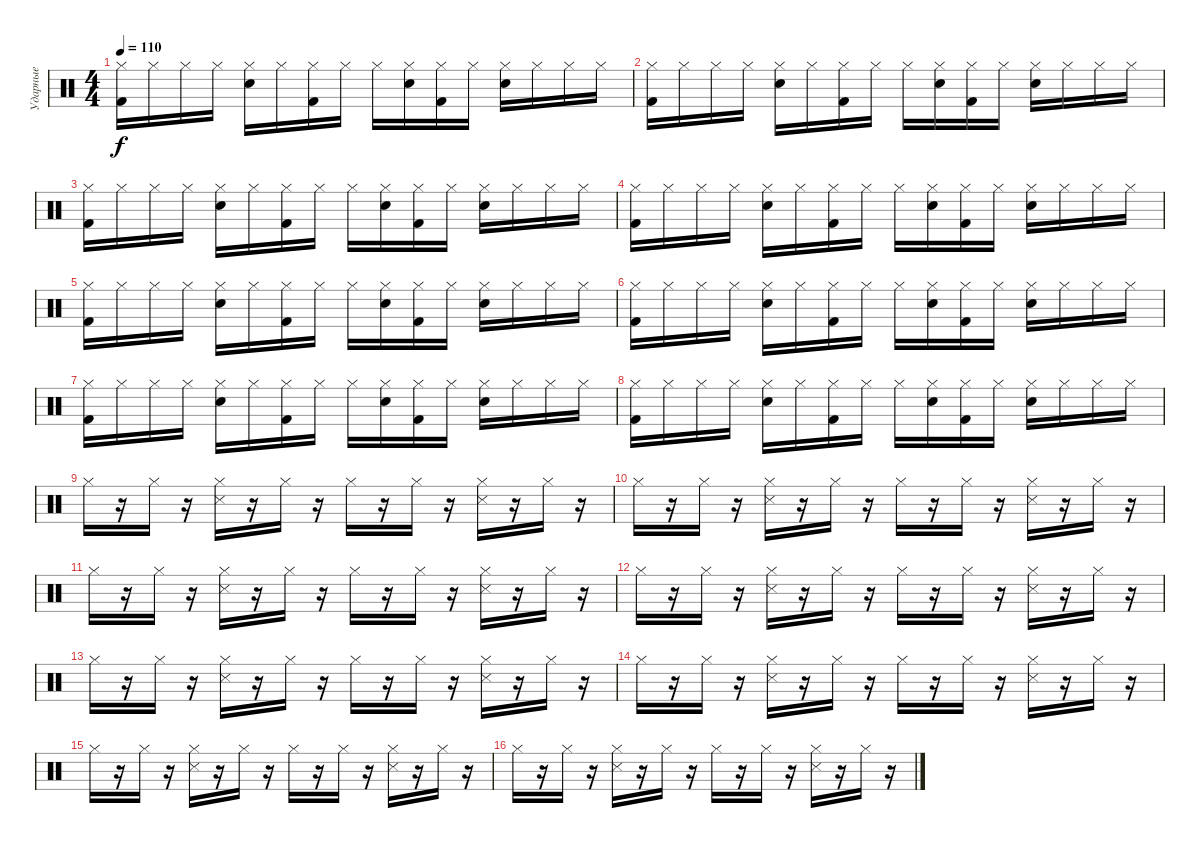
\track ("Ударные" "Ударные") {instrument percussion}
\staff {score}
\articulation defaults
\ts (4 4)
\tempo 110
\clef neutral
\ks c
("Hi-Hat (closed)" "Kick (hit) 2").16{dy f} "Hi-Hat (closed)".16 "Hi-Hat (closed)".16 "Hi-Hat (closed)".16 ("Hi-Hat (closed)" "Snare (hit) 2").16 "Hi-Hat (closed)".16 ("Hi-Hat (closed)" "Kick (hit) 2").16 "Hi-Hat (closed)".16 "Hi-Hat (closed)".16 ("Hi-Hat (closed)" "Snare (hit) 2").16 ("Hi-Hat (closed)" "Kick (hit) 2").16 "Hi-Hat (closed)".16 ("Hi-Hat (closed)" "Snare (hit) 2").16 "Hi-Hat (closed)".16 "Hi-Hat (closed)".16 "Hi-Hat (closed)".16 |
("Hi-Hat (closed)" "Kick (hit) 2").16 "Hi-Hat (closed)".16 "Hi-Hat (closed)".16 "Hi-Hat (closed)".16 ("Hi-Hat (closed)" "Snare (hit) 2").16 "Hi-Hat (closed)".16 ("Hi-Hat (closed)" "Kick (hit) 2").16 "Hi-Hat (closed)".16 "Hi-Hat (closed)".16 ("Hi-Hat (closed)" "Snare (hit) 2").16 ("Hi-Hat (closed)" "Kick (hit) 2").16 "Hi-Hat (closed)".16 ("Hi-Hat (closed)" "Snare (hit) 2").16 "Hi-Hat (closed)".16 "Hi-Hat (closed)".16 "Hi-Hat (closed)".16 |
("Hi-Hat (closed)" "Kick (hit) 2").16 "Hi-Hat (closed)".16 "Hi-Hat (closed)".16 "Hi-Hat (closed)".16 ("Hi-Hat (closed)" "Snare (hit) 2").16 "Hi-Hat (closed)".16 ("Hi-Hat (closed)" "Kick (hit) 2").16 "Hi-Hat (closed)".16 "Hi-Hat (closed)".16 ("Hi-Hat (closed)" "Snare (hit) 2").16 ("Hi-Hat (closed)" "Kick (hit) 2").16 "Hi-Hat (closed)".16 ("Hi-Hat (closed)" "Snare (hit) 2").16 "Hi-Hat (closed)".16 "Hi-Hat (closed)".16 "Hi-Hat (closed)".16 |
("Hi-Hat (closed)" "Kick (hit) 2").16 "Hi-Hat (closed)".16 "Hi-Hat (closed)".16 "Hi-Hat (closed)".16 ("Hi-Hat (closed)" "Snare (hit) 2").16 "Hi-Hat (closed)".16 ("Hi-Hat (closed)" "Kick (hit) 2").16 "Hi-Hat (closed)".16 "Hi-Hat (closed)".16 ("Hi-Hat (closed)" "Snare (hit) 2").16 ("Hi-Hat (closed)" "Kick (hit) 2").16 "Hi-Hat (closed)".16 ("Hi-Hat (closed)" "Snare (hit) 2").16 "Hi-Hat (closed)".16 "Hi-Hat (closed)".16 "Hi-Hat (closed)".16 |
("Hi-Hat (closed)" "Kick (hit) 2").16 "Hi-Hat (closed)".16 "Hi-Hat (closed)".16 "Hi-Hat (closed)".16 ("Hi-Hat (closed)" "Snare (hit) 2").16 "Hi-Hat (closed)".16 ("Hi-Hat (closed)" "Kick (hit) 2").16 "Hi-Hat (closed)".16 "Hi-Hat (closed)".16 ("Hi-Hat (closed)" "Snare (hit) 2").16 ("Hi-Hat (closed)" "Kick (hit) 2").16 "Hi-Hat (closed)".16 ("Hi-Hat (closed)" "Snare (hit) 2").16 "Hi-Hat (closed)".16 "Hi-Hat (closed)".16 "Hi-Hat (closed)".16 |
("Hi-Hat (closed)" "Kick (hit) 2").16 "Hi-Hat (closed)".16 "Hi-Hat (closed)".16 "Hi-Hat (closed)".16 ("Hi-Hat (closed)" "Snare (hit) 2").16 "Hi-Hat (closed)".16 ("Hi-Hat (closed)" "Kick (hit) 2").16 "Hi-Hat (closed)".16 "Hi-Hat (closed)".16 ("Hi-Hat (closed)" "Snare (hit) 2").16 ("Hi-Hat (closed)" "Kick (hit) 2").16 "Hi-Hat (closed)".16 ("Hi-Hat (closed)" "Snare (hit) 2").16 "Hi-Hat (closed)".16 "Hi-Hat (closed)".16 "Hi-Hat (closed)".16 |
("Hi-Hat (closed)" "Kick (hit) 2").16 "Hi-Hat (closed)".16 "Hi-Hat (closed)".16 "Hi-Hat (closed)".16 ("Hi-Hat (closed)" "Snare (hit) 2").16 "Hi-Hat (closed)".16 ("Hi-Hat (closed)" "Kick (hit) 2").16 "Hi-Hat (closed)".16 "Hi-Hat (closed)".16 ("Hi-Hat (closed)" "Snare (hit) 2").16 ("Hi-Hat (closed)" "Kick (hit) 2").16 "Hi-Hat (closed)".16 ("Hi-Hat (closed)" "Snare (hit) 2").16 "Hi-Hat (closed)".16 "Hi-Hat (closed)".16 "Hi-Hat (closed)".16 |
("Hi-Hat (closed)" "Kick (hit) 2").16 "Hi-Hat (closed)".16 "Hi-Hat (closed)".16 "Hi-Hat (closed)".16 ("Hi-Hat (closed)" "Snare (hit) 2").16 "Hi-Hat (closed)".16 ("Hi-Hat (closed)" "Kick (hit) 2").16 "Hi-Hat (closed)".16 "Hi-Hat (closed)".16 ("Hi-Hat (closed)" "Snare (hit) 2").16 ("Hi-Hat (closed)" "Kick (hit) 2").16 "Hi-Hat (closed)".16 ("Hi-Hat (closed)" "Snare (hit) 2").16 "Hi-Hat (closed)".16 "Hi-Hat (closed)".16 "Hi-Hat (closed)".16 |
"Hi-Hat (closed)".16 r.16 "Hi-Hat (closed)".16 r.16 ("Hi-Hat (closed)" "Snare (side stick) 3").16 r.16 "Hi-Hat (closed)".16 r.16 "Hi-Hat (closed)".16 r.16 "Hi-Hat (closed)".16 r.16 ("Hi-Hat (closed)" "Snare (side stick) 3").16 r.16 "Hi-Hat (closed)".16 r.16 |
"Hi-Hat (closed)".16 r.16 "Hi-Hat (closed)".16 r.16 ("Hi-Hat (closed)" "Snare (side stick) 3").16 r.16 "Hi-Hat (closed)".16 r.16 "Hi-Hat (closed)".16 r.16 "Hi-Hat (closed)".16 r.16 ("Hi-Hat (closed)" "Snare (side stick) 3").16 r.16 "Hi-Hat (closed)".16 r.16 |
"Hi-Hat (closed)".16 r.16 "Hi-Hat (closed)".16 r.16 ("Hi-Hat (closed)" "Snare (side stick) 3").16 r.16 "Hi-Hat (closed)".16 r.16 "Hi-Hat (closed)".16 r.16 "Hi-Hat (closed)".16 r.16 ("Hi-Hat (closed)" "Snare (side stick) 3").16 r.16 "Hi-Hat (closed)".16 r.16 |
"Hi-Hat (closed)".16 r.16 "Hi-Hat (closed)".16 r.16 ("Hi-Hat (closed)" "Snare (side stick) 3").16 r.16 "Hi-Hat (closed)".16 r.16 "Hi-Hat (closed)".16 r.16 "Hi-Hat (closed)".16 r.16 ("Hi-Hat (closed)" "Snare (side stick) 3").16 r.16 "Hi-Hat (closed)".16 r.16 |
"Hi-Hat (closed)".16 r.16 "Hi-Hat (closed)".16 r.16 ("Hi-Hat (closed)" "Snare (side stick) 3").16 r.16 "Hi-Hat (closed)".16 r.16 "Hi-Hat (closed)".16 r.16 "Hi-Hat (closed)".16 r.16 ("Hi-Hat (closed)" "Snare (side stick) 3").16 r.16 "Hi-Hat (closed)".16 r.16 |
"Hi-Hat (closed)".16 r.16 "Hi-Hat (closed)".16 r.16 ("Hi-Hat (closed)" "Snare (side stick) 3").16 r.16 "Hi-Hat (closed)".16 r.16 "Hi-Hat (closed)".16 r.16 "Hi-Hat (closed)".16 r.16 ("Hi-Hat (closed)" "Snare (side stick) 3").16 r.16 "Hi-Hat (closed)".16 r.16 |
"Hi-Hat (closed)".16 r.16 "Hi-Hat (closed)".16 r.16 ("Hi-Hat (closed)" "Snare (side stick) 3").16 r.16 "Hi-Hat (closed)".16 r.16 "Hi-Hat (closed)".16 r.16 "Hi-Hat (closed)".16 r.16 ("Hi-Hat (closed)" "Snare (side stick) 3").16 r.16 "Hi-Hat (closed)".16 r.16 |
"Hi-Hat (closed)".16 r.16 "Hi-Hat (closed)".16 r.16 ("Hi-Hat (closed)" "Snare (side stick) 3").16 r.16 "Hi-Hat (closed)".16 r.16 "Hi-Hat (closed)".16 r.16 "Hi-Hat (closed)".16 r.16 ("Hi-Hat (closed)" "Snare (side stick) 3").16 r.16 "Hi-Hat (closed)".16 r.16
